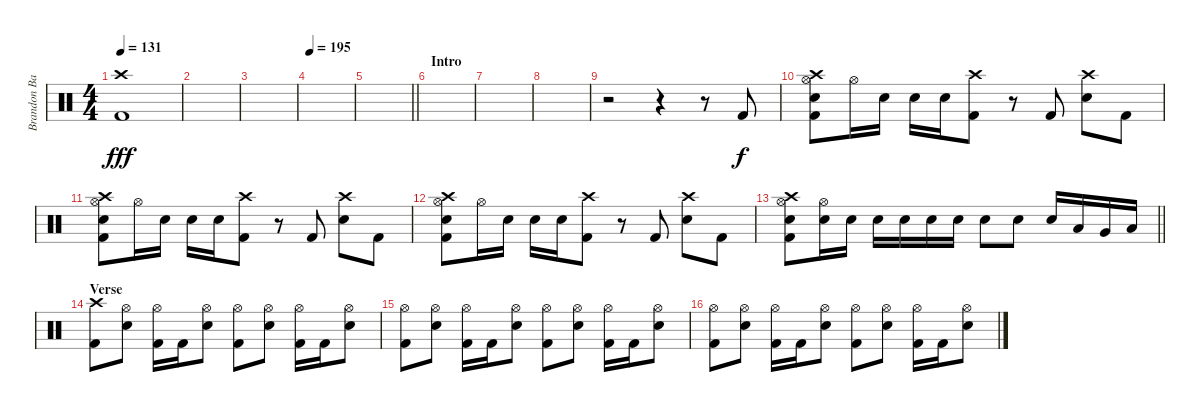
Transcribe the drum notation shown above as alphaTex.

\track ("Brandon Barnes - Drums" "Brandon Ba") {instrument percussion}
\staff {score}
\articulation defaults
\ts (4 4)
\tempo 131
\clef neutral
\ks c
("Crash high (hit)" "Kick (hit) 2").1{dy fff} |
|
|
\tempo 195
|
\barLineRight lightlight
|
\section ("" "Intro")
|
|
|
r.2 r.4 r.8 "Kick (hit) 2".8{dy f} |
("Crash high (hit)" "Kick (hit) 2" "Snare (hit) 2" "Hi-Hat (open)").8 "Hi-Hat (open)".16 "Snare (hit) 2".16 "Snare (hit) 2".16 "Snare (hit) 2".16 ("Crash high (hit)" "Kick (hit) 2").8 r.8 "Kick (hit) 2".8 ("Snare (hit) 2" "Crash high (hit)").8 "Kick (hit) 2".8 |
("Crash high (hit)" "Kick (hit) 2" "Snare (hit) 2" "Hi-Hat (open)").8 "Hi-Hat (open)".16 "Snare (hit) 2".16 "Snare (hit) 2".16 "Snare (hit) 2".16 ("Crash high (hit)" "Kick (hit) 2").8 r.8 "Kick (hit) 2".8 ("Snare (hit) 2" "Crash high (hit)").8 "Kick (hit) 2".8 |
("Crash high (hit)" "Kick (hit) 2" "Snare (hit) 2" "Hi-Hat (open)").8 "Hi-Hat (open)".16 "Snare (hit) 2".16 "Snare (hit) 2".16 "Snare (hit) 2".16 ("Crash high (hit)" "Kick (hit) 2").8 r.8 "Kick (hit) 2".8 ("Snare (hit) 2" "Crash high (hit)").8 "Kick (hit) 2".8 |
\barLineRight lightlight
("Crash high (hit)" "Kick (hit) 2" "Snare (hit) 2" "Hi-Hat (open)").8 ("Snare (hit) 2" "Hi-Hat (open)").16 "Snare (hit) 2".16 "Snare (hit) 2".16 "Snare (hit) 2".16 "Snare (hit) 2".16 "Snare (hit) 2".16 "Snare (hit) 2".8 "Snare (hit) 2".8 "Snare (hit) 2".16 "Low Tom (hit)".16 "Very Low Tom (hit)".16 "Low Floor Tom (hit)".16 |
\section ("" "Verse")
("Crash high (hit)" "Kick (hit) 2").8 ("Snare (hit) 2" "Hi-Hat (open)").8 ("Kick (hit) 2" "Hi-Hat (open)").16 "Kick (hit) 2".16 ("Snare (hit) 2" "Hi-Hat (open)").8 ("Hi-Hat (open)" "Kick (hit) 2").8 ("Snare (hit) 2" "Hi-Hat (open)").8 ("Kick (hit) 2" "Hi-Hat (open)").16 "Kick (hit) 2".16 ("Snare (hit) 2" "Hi-Hat (open)").8 |
("Hi-Hat (open)" "Kick (hit) 2").8 ("Snare (hit) 2" "Hi-Hat (open)").8 ("Kick (hit) 2" "Hi-Hat (open)").16 "Kick (hit) 2".16 ("Snare (hit) 2" "Hi-Hat (open)").8 ("Hi-Hat (open)" "Kick (hit) 2").8 ("Snare (hit) 2" "Hi-Hat (open)").8 ("Kick (hit) 2" "Hi-Hat (open)").16 "Kick (hit) 2".16 ("Snare (hit) 2" "Hi-Hat (open)").8 |
("Hi-Hat (open)" "Kick (hit) 2").8 ("Snare (hit) 2" "Hi-Hat (open)").8 ("Kick (hit) 2" "Hi-Hat (open)").16 "Kick (hit) 2".16 ("Snare (hit) 2" "Hi-Hat (open)").8 ("Hi-Hat (open)" "Kick (hit) 2").8 ("Snare (hit) 2" "Hi-Hat (open)").8 ("Kick (hit) 2" "Hi-Hat (open)").16 "Kick (hit) 2".16 ("Snare (hit) 2" "Hi-Hat (open)").8
